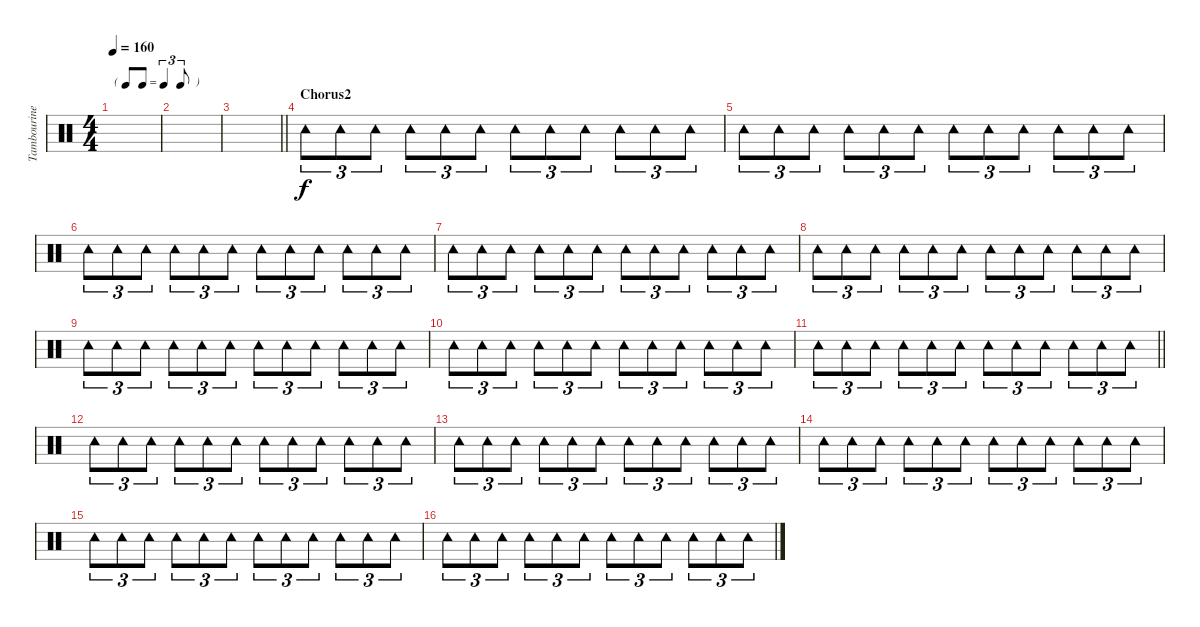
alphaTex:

\track ("Tambourine" "Tambourine") {instrument percussion}
\staff {score}
\articulation defaults
\ts (4 4)
\tf triplet8th
\tempo 160
\clef neutral
\ks c
|
|
\barLineRight lightlight
|
\section ("" "Chorus2")
"Tambourine (hit)".8{tu (3 2)} "Tambourine (hit)".8{tu (3 2)} "Tambourine (hit)".8{tu (3 2)} "Tambourine (hit)".8{tu (3 2)} "Tambourine (hit)".8{tu (3 2)} "Tambourine (hit)".8{tu (3 2)} "Tambourine (hit)".8{tu (3 2)} "Tambourine (hit)".8{tu (3 2)} "Tambourine (hit)".8{tu (3 2)} "Tambourine (hit)".8{tu (3 2)} "Tambourine (hit)".8{tu (3 2)} "Tambourine (hit)".8{tu (3 2)} |
"Tambourine (hit)".8{tu (3 2)} "Tambourine (hit)".8{tu (3 2)} "Tambourine (hit)".8{tu (3 2)} "Tambourine (hit)".8{tu (3 2)} "Tambourine (hit)".8{tu (3 2)} "Tambourine (hit)".8{tu (3 2)} "Tambourine (hit)".8{tu (3 2)} "Tambourine (hit)".8{tu (3 2)} "Tambourine (hit)".8{tu (3 2)} "Tambourine (hit)".8{tu (3 2)} "Tambourine (hit)".8{tu (3 2)} "Tambourine (hit)".8{tu (3 2)} |
"Tambourine (hit)".8{tu (3 2)} "Tambourine (hit)".8{tu (3 2)} "Tambourine (hit)".8{tu (3 2)} "Tambourine (hit)".8{tu (3 2)} "Tambourine (hit)".8{tu (3 2)} "Tambourine (hit)".8{tu (3 2)} "Tambourine (hit)".8{tu (3 2)} "Tambourine (hit)".8{tu (3 2)} "Tambourine (hit)".8{tu (3 2)} "Tambourine (hit)".8{tu (3 2)} "Tambourine (hit)".8{tu (3 2)} "Tambourine (hit)".8{tu (3 2)} |
"Tambourine (hit)".8{tu (3 2)} "Tambourine (hit)".8{tu (3 2)} "Tambourine (hit)".8{tu (3 2)} "Tambourine (hit)".8{tu (3 2)} "Tambourine (hit)".8{tu (3 2)} "Tambourine (hit)".8{tu (3 2)} "Tambourine (hit)".8{tu (3 2)} "Tambourine (hit)".8{tu (3 2)} "Tambourine (hit)".8{tu (3 2)} "Tambourine (hit)".8{tu (3 2)} "Tambourine (hit)".8{tu (3 2)} "Tambourine (hit)".8{tu (3 2)} |
"Tambourine (hit)".8{tu (3 2)} "Tambourine (hit)".8{tu (3 2)} "Tambourine (hit)".8{tu (3 2)} "Tambourine (hit)".8{tu (3 2)} "Tambourine (hit)".8{tu (3 2)} "Tambourine (hit)".8{tu (3 2)} "Tambourine (hit)".8{tu (3 2)} "Tambourine (hit)".8{tu (3 2)} "Tambourine (hit)".8{tu (3 2)} "Tambourine (hit)".8{tu (3 2)} "Tambourine (hit)".8{tu (3 2)} "Tambourine (hit)".8{tu (3 2)} |
"Tambourine (hit)".8{tu (3 2)} "Tambourine (hit)".8{tu (3 2)} "Tambourine (hit)".8{tu (3 2)} "Tambourine (hit)".8{tu (3 2)} "Tambourine (hit)".8{tu (3 2)} "Tambourine (hit)".8{tu (3 2)} "Tambourine (hit)".8{tu (3 2)} "Tambourine (hit)".8{tu (3 2)} "Tambourine (hit)".8{tu (3 2)} "Tambourine (hit)".8{tu (3 2)} "Tambourine (hit)".8{tu (3 2)} "Tambourine (hit)".8{tu (3 2)} |
"Tambourine (hit)".8{tu (3 2)} "Tambourine (hit)".8{tu (3 2)} "Tambourine (hit)".8{tu (3 2)} "Tambourine (hit)".8{tu (3 2)} "Tambourine (hit)".8{tu (3 2)} "Tambourine (hit)".8{tu (3 2)} "Tambourine (hit)".8{tu (3 2)} "Tambourine (hit)".8{tu (3 2)} "Tambourine (hit)".8{tu (3 2)} "Tambourine (hit)".8{tu (3 2)} "Tambourine (hit)".8{tu (3 2)} "Tambourine (hit)".8{tu (3 2)} |
\barLineRight lightlight "Tambourine (hit)".8{tu (3 2)} "Tambourine (hit)".8{tu (3 2)} "Tambourine (hit)".8{tu (3 2)} "Tambourine (hit)".8{tu (3 2)} "Tambourine (hit)".8{tu (3 2)} "Tambourine (hit)".8{tu (3 2)} "Tambourine (hit)".8{tu (3 2)} "Tambourine (hit)".8{tu (3 2)} "Tambourine (hit)".8{tu (3 2)} "Tambourine (hit)".8{tu (3 2)} "Tambourine (hit)".8{tu (3 2)} "Tambourine (hit)".8{tu (3 2)}
|
"Tambourine (hit)".8{tu (3 2)} "Tambourine (hit)".8{tu (3 2)} "Tambourine (hit)".8{tu (3 2)} "Tambourine (hit)".8{tu (3 2)} "Tambourine (hit)".8{tu (3 2)} "Tambourine (hit)".8{tu (3 2)} "Tambourine (hit)".8{tu (3 2)} "Tambourine (hit)".8{tu (3 2)} "Tambourine (hit)".8{tu (3 2)} "Tambourine (hit)".8{tu (3 2)} "Tambourine (hit)".8{tu (3 2)} "Tambourine (hit)".8{tu (3 2)} |
"Tambourine (hit)".8{tu (3 2)} "Tambourine (hit)".8{tu (3 2)} "Tambourine (hit)".8{tu (3 2)} "Tambourine (hit)".8{tu (3 2)} "Tambourine (hit)".8{tu (3 2)} "Tambourine (hit)".8{tu (3 2)} "Tambourine (hit)".8{tu (3 2)} "Tambourine (hit)".8{tu (3 2)} "Tambourine (hit)".8{tu (3 2)} "Tambourine (hit)".8{tu (3 2)} "Tambourine (hit)".8{tu (3 2)} "Tambourine (hit)".8{tu (3 2)} |
"Tambourine (hit)".8{tu (3 2)} "Tambourine (hit)".8{tu (3 2)} "Tambourine (hit)".8{tu (3 2)} "Tambourine (hit)".8{tu (3 2)} "Tambourine (hit)".8{tu (3 2)} "Tambourine (hit)".8{tu (3 2)} "Tambourine (hit)".8{tu (3 2)} "Tambourine (hit)".8{tu (3 2)} "Tambourine (hit)".8{tu (3 2)} "Tambourine (hit)".8{tu (3 2)} "Tambourine (hit)".8{tu (3 2)} "Tambourine (hit)".8{tu (3 2)} |
"Tambourine (hit)".8{tu (3 2)} "Tambourine (hit)".8{tu (3 2)} "Tambourine (hit)".8{tu (3 2)} "Tambourine (hit)".8{tu (3 2)} "Tambourine (hit)".8{tu (3 2)} "Tambourine (hit)".8{tu (3 2)} "Tambourine (hit)".8{tu (3 2)} "Tambourine (hit)".8{tu (3 2)} "Tambourine (hit)".8{tu (3 2)} "Tambourine (hit)".8{tu (3 2)} "Tambourine (hit)".8{tu (3 2)} "Tambourine (hit)".8{tu (3 2)} |
"Tambourine (hit)".8{tu (3 2)} "Tambourine (hit)".8{tu (3 2)} "Tambourine (hit)".8{tu (3 2)} "Tambourine (hit)".8{tu (3 2)} "Tambourine (hit)".8{tu (3 2)} "Tambourine (hit)".8{tu (3 2)} "Tambourine (hit)".8{tu (3 2)} "Tambourine (hit)".8{tu (3 2)} "Tambourine (hit)".8{tu (3 2)} "Tambourine (hit)".8{tu (3 2)} "Tambourine (hit)".8{tu (3 2)} "Tambourine (hit)".8{tu (3 2)}
